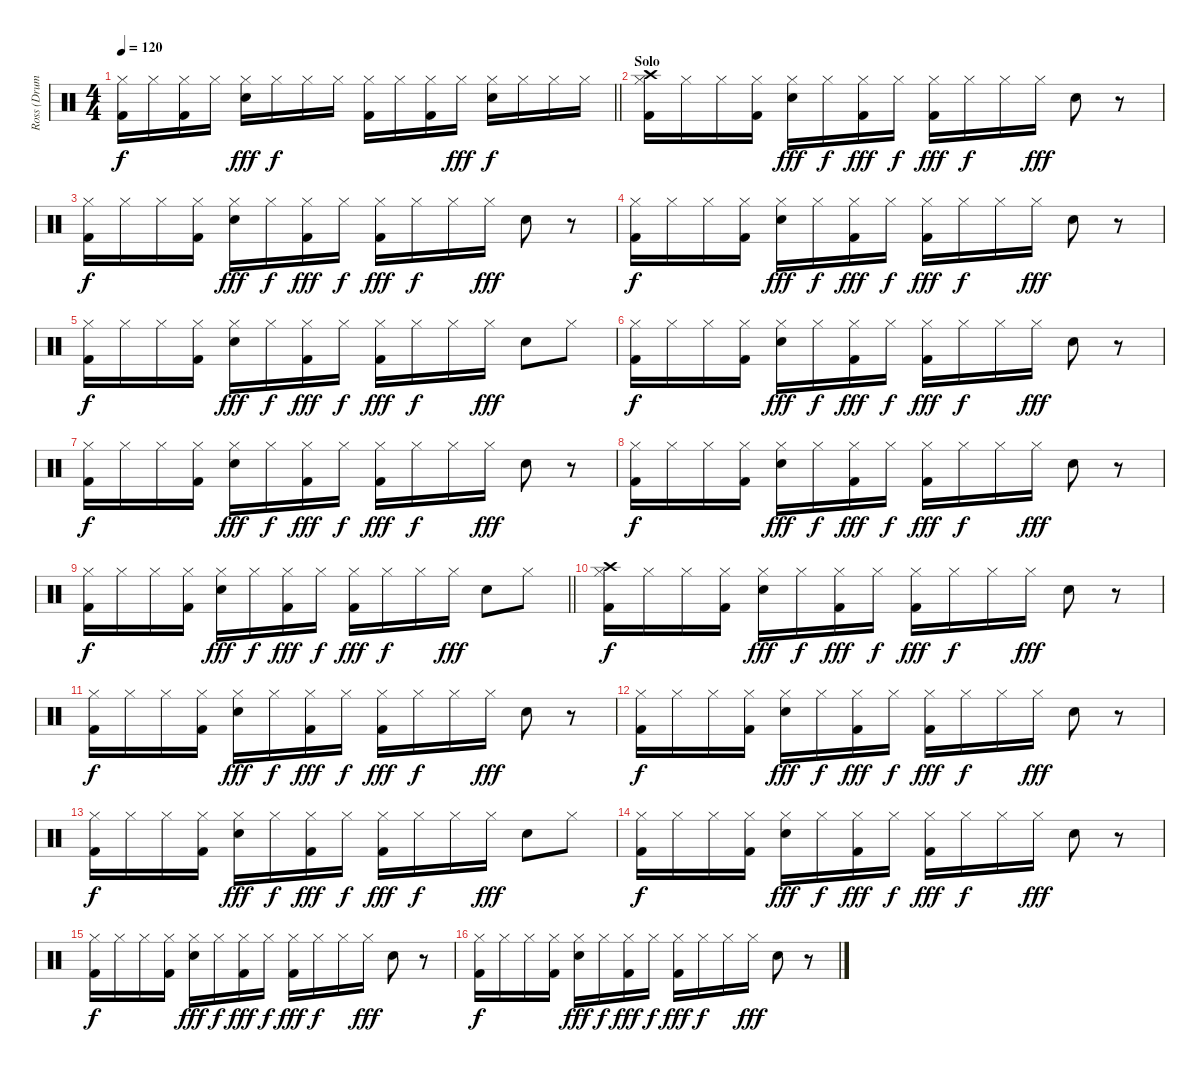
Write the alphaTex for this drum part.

\track ("Ross (Drums)" "Ross (Drum") {instrument percussion}
\staff {score}
\articulation defaults
\ts (4 4)
\tempo 120
\clef neutral
\barLineRight lightlight
\ks c
("Hi-Hat (closed)" "Kick (hit) 2").16{dy f} "Hi-Hat (closed)".16 ("Hi-Hat (closed)" "Kick (hit) 2").16 "Hi-Hat (closed)".16 ("Hi-Hat (closed)" "Snare (hit) 2").16{dy fff} "Hi-Hat (closed)".16{dy f} "Hi-Hat (closed)".16 "Hi-Hat (closed)".16 ("Hi-Hat (closed)" "Kick (hit) 2").16 "Hi-Hat (closed)".16 ("Hi-Hat (closed)" "Kick (hit) 2").16 "Hi-Hat (closed)".16{dy fff} ("Hi-Hat (closed)" "Snare (hit) 2").16{dy f} "Hi-Hat (closed)".16 "Hi-Hat (closed)".16 "Hi-Hat (closed)".16 |
\section ("" "Solo")
("Crash high (hit)" "Hi-Hat (closed)" "Kick (hit) 2").16 "Hi-Hat (closed)".16 "Hi-Hat (closed)".16 ("Hi-Hat (closed)" "Kick (hit) 2").16 ("Hi-Hat (closed)" "Snare (hit) 2").16{dy fff} "Hi-Hat (closed)".16{dy f} ("Hi-Hat (closed)" "Kick (hit) 2").16{dy fff} "Hi-Hat (closed)".16{dy f} ("Hi-Hat (closed)" "Kick (hit) 2").16{dy fff} "Hi-Hat (closed)".16{dy f} "Hi-Hat (closed)".16 "Hi-Hat (closed)".16{dy fff} "Snare (hit) 2".8 r.8 |
("Hi-Hat (closed)" "Kick (hit) 2").16{dy f} "Hi-Hat (closed)".16 "Hi-Hat (closed)".16 ("Hi-Hat (closed)" "Kick (hit) 2").16 ("Hi-Hat (closed)" "Snare (hit) 2").16{dy fff} "Hi-Hat (closed)".16{dy f} ("Hi-Hat (closed)" "Kick (hit) 2").16{dy fff} "Hi-Hat (closed)".16{dy f} ("Hi-Hat (closed)" "Kick (hit) 2").16{dy fff} "Hi-Hat (closed)".16{dy f} "Hi-Hat (closed)".16 "Hi-Hat (closed)".16{dy fff} "Snare (hit) 2".8 r.8 |
("Hi-Hat (closed)" "Kick (hit) 2").16{dy f} "Hi-Hat (closed)".16 "Hi-Hat (closed)".16 ("Hi-Hat (closed)" "Kick (hit) 2").16 ("Hi-Hat (closed)" "Snare (hit) 2").16{dy fff} "Hi-Hat (closed)".16{dy f} ("Hi-Hat (closed)" "Kick (hit) 2").16{dy fff} "Hi-Hat (closed)".16{dy f} ("Hi-Hat (closed)" "Kick (hit) 2").16{dy fff} "Hi-Hat (closed)".16{dy f} "Hi-Hat (closed)".16 "Hi-Hat (closed)".16{dy fff} "Snare (hit) 2".8 r.8 |
("Hi-Hat (closed)" "Kick (hit) 2").16{dy f} "Hi-Hat (closed)".16 "Hi-Hat (closed)".16 ("Hi-Hat (closed)" "Kick (hit) 2").16 ("Hi-Hat (closed)" "Snare (hit) 2").16{dy fff} "Hi-Hat (closed)".16{dy f} ("Hi-Hat (closed)" "Kick (hit) 2").16{dy fff} "Hi-Hat (closed)".16{dy f} ("Hi-Hat (closed)" "Kick (hit) 2").16{dy fff} "Hi-Hat (closed)".16{dy f} "Hi-Hat (closed)".16 "Hi-Hat (closed)".16{dy fff} "Snare (hit) 2".8 "Hi-Hat (closed)".8 |
("Hi-Hat (closed)" "Kick (hit) 2").16{dy f} "Hi-Hat (closed)".16 "Hi-Hat (closed)".16 ("Hi-Hat (closed)" "Kick (hit) 2").16 ("Hi-Hat (closed)" "Snare (hit) 2").16{dy fff} "Hi-Hat (closed)".16{dy f} ("Hi-Hat (closed)" "Kick (hit) 2").16{dy fff} "Hi-Hat (closed)".16{dy f} ("Hi-Hat (closed)" "Kick (hit) 2").16{dy fff} "Hi-Hat (closed)".16{dy f} "Hi-Hat (closed)".16 "Hi-Hat (closed)".16{dy fff} "Snare (hit) 2".8 r.8 |
("Hi-Hat (closed)" "Kick (hit) 2").16{dy f} "Hi-Hat (closed)".16 "Hi-Hat (closed)".16 ("Hi-Hat (closed)" "Kick (hit) 2").16 ("Hi-Hat (closed)" "Snare (hit) 2").16{dy fff} "Hi-Hat (closed)".16{dy f} ("Hi-Hat (closed)" "Kick (hit) 2").16{dy fff} "Hi-Hat (closed)".16{dy f} ("Hi-Hat (closed)" "Kick (hit) 2").16{dy fff} "Hi-Hat (closed)".16{dy f} "Hi-Hat (closed)".16 "Hi-Hat (closed)".16{dy fff} "Snare (hit) 2".8 r.8 |
("Hi-Hat (closed)" "Kick (hit) 2").16{dy f} "Hi-Hat (closed)".16 "Hi-Hat (closed)".16 ("Hi-Hat (closed)" "Kick (hit) 2").16 ("Hi-Hat (closed)" "Snare (hit) 2").16{dy fff} "Hi-Hat (closed)".16{dy f} ("Hi-Hat (closed)" "Kick (hit) 2").16{dy fff} "Hi-Hat (closed)".16{dy f} ("Hi-Hat (closed)" "Kick (hit) 2").16{dy fff} "Hi-Hat (closed)".16{dy f} "Hi-Hat (closed)".16 "Hi-Hat (closed)".16{dy fff} "Snare (hit) 2".8 r.8 |
\barLineRight lightlight
("Hi-Hat (closed)" "Kick (hit) 2").16{dy f} "Hi-Hat (closed)".16 "Hi-Hat (closed)".16 ("Hi-Hat (closed)" "Kick (hit) 2").16 ("Hi-Hat (closed)" "Snare (hit) 2").16{dy fff} "Hi-Hat (closed)".16{dy f} ("Hi-Hat (closed)" "Kick (hit) 2").16{dy fff} "Hi-Hat (closed)".16{dy f} ("Hi-Hat (closed)" "Kick (hit) 2").16{dy fff} "Hi-Hat (closed)".16{dy f} "Hi-Hat (closed)".16 "Hi-Hat (closed)".16{dy fff} "Snare (hit) 2".8 "Hi-Hat (closed)".8 |
\section ("" "")
("Crash high (hit)" "Hi-Hat (closed)" "Kick (hit) 2").16{dy f} "Hi-Hat (closed)".16 "Hi-Hat (closed)".16 ("Hi-Hat (closed)" "Kick (hit) 2").16 ("Hi-Hat (closed)" "Snare (hit) 2").16{dy fff} "Hi-Hat (closed)".16{dy f} ("Hi-Hat (closed)" "Kick (hit) 2").16{dy fff} "Hi-Hat (closed)".16{dy f} ("Hi-Hat (closed)" "Kick (hit) 2").16{dy fff} "Hi-Hat (closed)".16{dy f} "Hi-Hat (closed)".16 "Hi-Hat (closed)".16{dy fff} "Snare (hit) 2".8 r.8 |
("Hi-Hat (closed)" "Kick (hit) 2").16{dy f} "Hi-Hat (closed)".16 "Hi-Hat (closed)".16 ("Hi-Hat (closed)" "Kick (hit) 2").16 ("Hi-Hat (closed)" "Snare (hit) 2").16{dy fff} "Hi-Hat (closed)".16{dy f} ("Hi-Hat (closed)" "Kick (hit) 2").16{dy fff} "Hi-Hat (closed)".16{dy f} ("Hi-Hat (closed)" "Kick (hit) 2").16{dy fff} "Hi-Hat (closed)".16{dy f} "Hi-Hat (closed)".16 "Hi-Hat (closed)".16{dy fff} "Snare (hit) 2".8 r.8 |
("Hi-Hat (closed)" "Kick (hit) 2").16{dy f} "Hi-Hat (closed)".16 "Hi-Hat (closed)".16 ("Hi-Hat (closed)" "Kick (hit) 2").16 ("Hi-Hat (closed)" "Snare (hit) 2").16{dy fff} "Hi-Hat (closed)".16{dy f} ("Hi-Hat (closed)" "Kick (hit) 2").16{dy fff} "Hi-Hat (closed)".16{dy f} ("Hi-Hat (closed)" "Kick (hit) 2").16{dy fff} "Hi-Hat (closed)".16{dy f} "Hi-Hat (closed)".16 "Hi-Hat (closed)".16{dy fff} "Snare (hit) 2".8 r.8 |
("Hi-Hat (closed)" "Kick (hit) 2").16{dy f} "Hi-Hat (closed)".16 "Hi-Hat (closed)".16 ("Hi-Hat (closed)" "Kick (hit) 2").16 ("Hi-Hat (closed)" "Snare (hit) 2").16{dy fff} "Hi-Hat (closed)".16{dy f} ("Hi-Hat (closed)" "Kick (hit) 2").16{dy fff} "Hi-Hat (closed)".16{dy f} ("Hi-Hat (closed)" "Kick (hit) 2").16{dy fff} "Hi-Hat (closed)".16{dy f} "Hi-Hat (closed)".16 "Hi-Hat (closed)".16{dy fff} "Snare (hit) 2".8 "Hi-Hat (closed)".8 |
("Hi-Hat (closed)" "Kick (hit) 2").16{dy f} "Hi-Hat (closed)".16 "Hi-Hat (closed)".16 ("Hi-Hat (closed)" "Kick (hit) 2").16 ("Hi-Hat (closed)" "Snare (hit) 2").16{dy fff} "Hi-Hat (closed)".16{dy f} ("Hi-Hat (closed)" "Kick (hit) 2").16{dy fff} "Hi-Hat (closed)".16{dy f} ("Hi-Hat (closed)" "Kick (hit) 2").16{dy fff} "Hi-Hat (closed)".16{dy f} "Hi-Hat (closed)".16 "Hi-Hat (closed)".16{dy fff} "Snare (hit) 2".8 r.8 |
("Hi-Hat (closed)" "Kick (hit) 2").16{dy f} "Hi-Hat (closed)".16 "Hi-Hat (closed)".16 ("Hi-Hat (closed)" "Kick (hit) 2").16 ("Hi-Hat (closed)" "Snare (hit) 2").16{dy fff} "Hi-Hat (closed)".16{dy f} ("Hi-Hat (closed)" "Kick (hit) 2").16{dy fff} "Hi-Hat (closed)".16{dy f} ("Hi-Hat (closed)" "Kick (hit) 2").16{dy fff} "Hi-Hat (closed)".16{dy f} "Hi-Hat (closed)".16 "Hi-Hat (closed)".16{dy fff} "Snare (hit) 2".8 r.8 |
("Hi-Hat (closed)" "Kick (hit) 2").16{dy f} "Hi-Hat (closed)".16 "Hi-Hat (closed)".16 ("Hi-Hat (closed)" "Kick (hit) 2").16 ("Hi-Hat (closed)" "Snare (hit) 2").16{dy fff} "Hi-Hat (closed)".16{dy f} ("Hi-Hat (closed)" "Kick (hit) 2").16{dy fff} "Hi-Hat (closed)".16{dy f} ("Hi-Hat (closed)" "Kick (hit) 2").16{dy fff} "Hi-Hat (closed)".16{dy f} "Hi-Hat (closed)".16 "Hi-Hat (closed)".16{dy fff} "Snare (hit) 2".8 r.8
